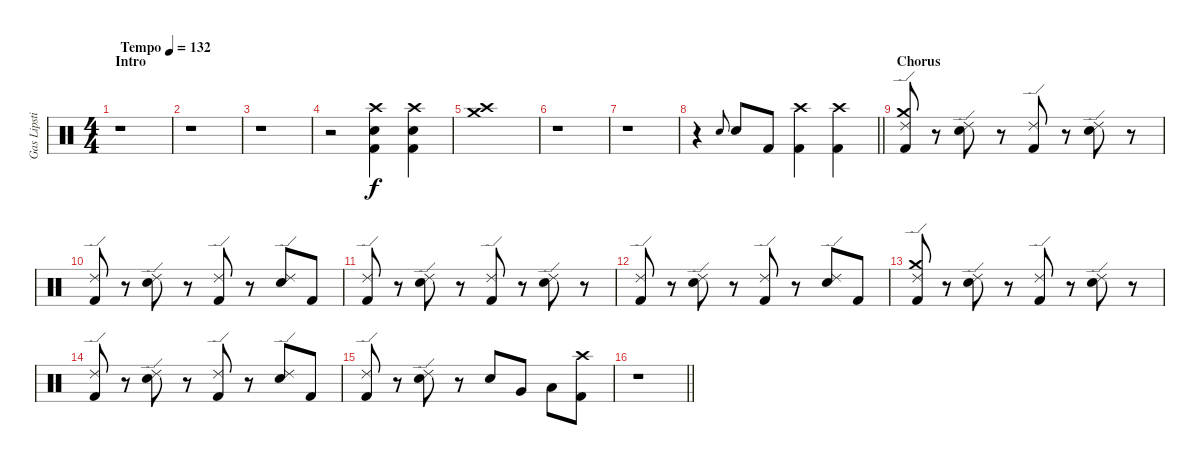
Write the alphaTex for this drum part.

\track ("Gas Lipstick (Drums)" "Gas Lipsti") {instrument percussion}
\staff {score}
\articulation defaults
\ts (4 4)
\section ("" "Intro")
\tempo (132 "Tempo")
\clef neutral
\ks c
r.1{dy f} |
r.1 |
r.1 |
r.2 ("Crash high (hit)" "Snare (hit) 2" "Kick (hit) 2").4 ("Crash high (hit)" "Snare (hit) 2" "Kick (hit) 2").4 |
("Crash medium (hit)" "Crash high (hit)").1 |
r.1 |
r.1 |
\barLineRight lightlight
r.4 "Snare (hit) 2".8{gr onbeat} "Snare (hit) 2".8 "Kick (hit) 2".8 ("Crash high (hit)" "Kick (hit) 2").4 ("Crash high (hit)" "Kick (hit) 2").4 |
\section ("" "Chorus")
("Crash medium (hit)" "Ride (edge) 2" "Kick (hit) 2").8 r.8 ("Ride (edge) 2" "Snare (hit) 2").8 r.8 ("Ride (edge) 2" "Kick (hit) 2").8 r.8 ("Ride (edge) 2" "Snare (hit) 2").8 r.8 |
("Ride (edge) 2" "Kick (hit) 2").8 r.8 ("Ride (edge) 2" "Snare (hit) 2").8 r.8 ("Ride (edge) 2" "Kick (hit) 2").8 r.8 ("Ride (edge) 2" "Snare (hit) 2").8 "Kick (hit) 2".8 |
("Ride (edge) 2" "Kick (hit) 2").8 r.8 ("Ride (edge) 2" "Snare (hit) 2").8 r.8 ("Ride (edge) 2" "Kick (hit) 2").8 r.8 ("Ride (edge) 2" "Snare (hit) 2").8 r.8 |
("Ride (edge) 2" "Kick (hit) 2").8 r.8 ("Ride (edge) 2" "Snare (hit) 2").8 r.8 ("Ride (edge) 2" "Kick (hit) 2").8 r.8 ("Ride (edge) 2" "Snare (hit) 2").8 "Kick (hit) 2".8 |
("Crash medium (hit)" "Ride (edge) 2" "Kick (hit) 2").8 r.8 ("Ride (edge) 2" "Snare (hit) 2").8 r.8 ("Ride (edge) 2" "Kick (hit) 2").8 r.8 ("Ride (edge) 2" "Snare (hit) 2").8 r.8 |
("Ride (edge) 2" "Kick (hit) 2").8 r.8 ("Ride (edge) 2" "Snare (hit) 2").8 r.8 ("Ride (edge) 2" "Kick (hit) 2").8 r.8 ("Ride (edge) 2" "Snare (hit) 2").8 "Kick (hit) 2".8 |
("Ride (edge) 2" "Kick (hit) 2").8 r.8 ("Ride (edge) 2" "Snare (hit) 2").8 r.8 "Snare (hit) 2".8 "Very Low Tom (hit)".8 "Low Floor Tom (hit)".8 ("Crash high (hit)" "Kick (hit) 2").8 |
\barLineRight lightlight
r.1
